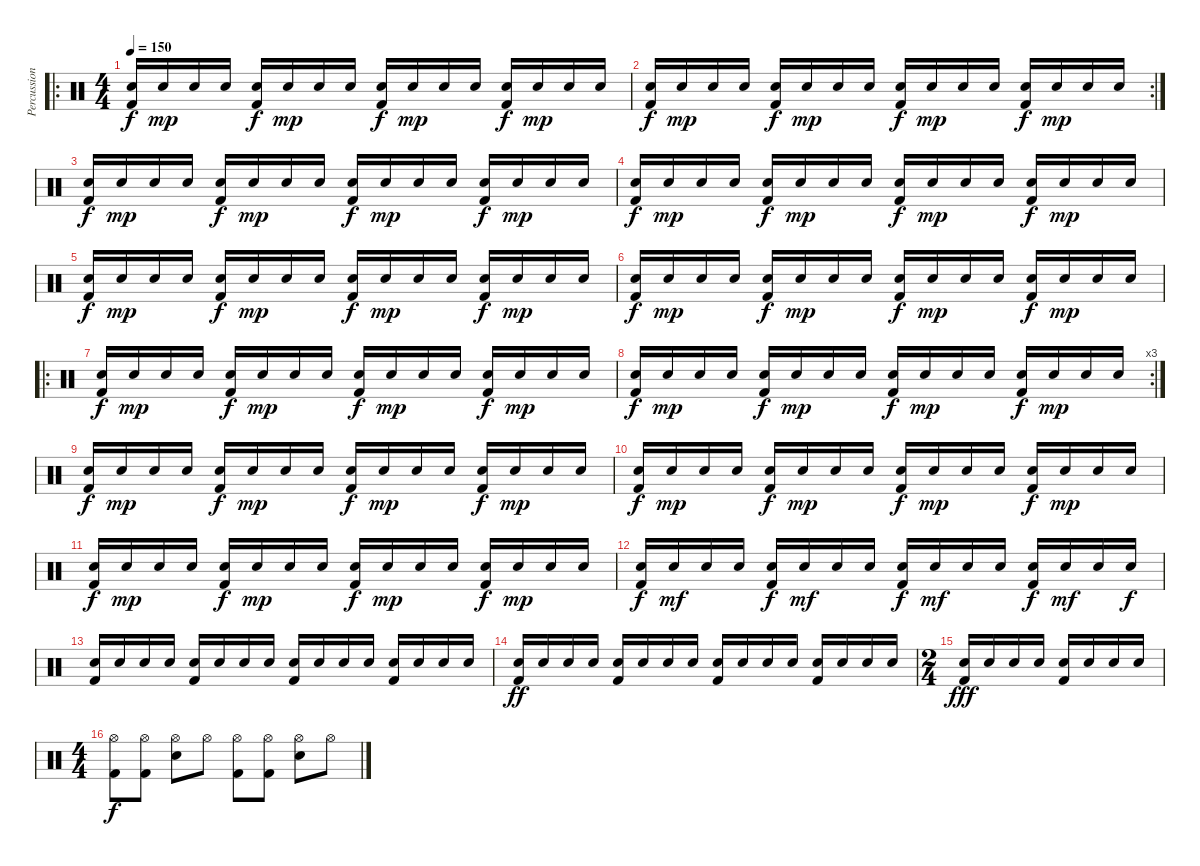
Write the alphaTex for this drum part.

\track ("Percussion" "Percussion") {instrument percussion}
\staff
\articulation defaults
\ro
\ts (4 4)
\tempo 150
\clef neutral
\ks c
("Snare (hit) 2" "Kick (hit) 2").16{dy f} "Snare (hit) 2".16{dy mp} "Snare (hit) 2".16 "Snare (hit) 2".16 ("Snare (hit) 2" "Kick (hit) 2").16{dy f} "Snare (hit) 2".16{dy mp} "Snare (hit) 2".16 "Snare (hit) 2".16 ("Snare (hit) 2" "Kick (hit) 2").16{dy f} "Snare (hit) 2".16{dy mp} "Snare (hit) 2".16 "Snare (hit) 2".16 ("Snare (hit) 2" "Kick (hit) 2").16{dy f} "Snare (hit) 2".16{dy mp} "Snare (hit) 2".16 "Snare (hit) 2".16 |
\rc 2
("Snare (hit) 2" "Kick (hit) 2").16{dy f} "Snare (hit) 2".16{dy mp} "Snare (hit) 2".16 "Snare (hit) 2".16 ("Snare (hit) 2" "Kick (hit) 2").16{dy f} "Snare (hit) 2".16{dy mp} "Snare (hit) 2".16 "Snare (hit) 2".16 ("Snare (hit) 2" "Kick (hit) 2").16{dy f} "Snare (hit) 2".16{dy mp} "Snare (hit) 2".16 "Snare (hit) 2".16 ("Snare (hit) 2" "Kick (hit) 2").16{dy f} "Snare (hit) 2".16{dy mp} "Snare (hit) 2".16 "Snare (hit) 2".16 |
("Snare (hit) 2" "Kick (hit) 2").16{dy f} "Snare (hit) 2".16{dy mp} "Snare (hit) 2".16 "Snare (hit) 2".16 ("Snare (hit) 2" "Kick (hit) 2").16{dy f} "Snare (hit) 2".16{dy mp} "Snare (hit) 2".16 "Snare (hit) 2".16 ("Snare (hit) 2" "Kick (hit) 2").16{dy f} "Snare (hit) 2".16{dy mp} "Snare (hit) 2".16 "Snare (hit) 2".16 ("Snare (hit) 2" "Kick (hit) 2").16{dy f} "Snare (hit) 2".16{dy mp} "Snare (hit) 2".16 "Snare (hit) 2".16 |
("Snare (hit) 2" "Kick (hit) 2").16{dy f} "Snare (hit) 2".16{dy mp} "Snare (hit) 2".16 "Snare (hit) 2".16 ("Snare (hit) 2" "Kick (hit) 2").16{dy f} "Snare (hit) 2".16{dy mp} "Snare (hit) 2".16 "Snare (hit) 2".16 ("Snare (hit) 2" "Kick (hit) 2").16{dy f} "Snare (hit) 2".16{dy mp} "Snare (hit) 2".16 "Snare (hit) 2".16 ("Snare (hit) 2" "Kick (hit) 2").16{dy f} "Snare (hit) 2".16{dy mp} "Snare (hit) 2".16 "Snare (hit) 2".16 |
("Snare (hit) 2" "Kick (hit) 2").16{dy f} "Snare (hit) 2".16{dy mp} "Snare (hit) 2".16 "Snare (hit) 2".16 ("Snare (hit) 2" "Kick (hit) 2").16{dy f} "Snare (hit) 2".16{dy mp} "Snare (hit) 2".16 "Snare (hit) 2".16 ("Snare (hit) 2" "Kick (hit) 2").16{dy f} "Snare (hit) 2".16{dy mp} "Snare (hit) 2".16 "Snare (hit) 2".16 ("Snare (hit) 2" "Kick (hit) 2").16{dy f} "Snare (hit) 2".16{dy mp} "Snare (hit) 2".16 "Snare (hit) 2".16 |
("Snare (hit) 2" "Kick (hit) 2").16{dy f} "Snare (hit) 2".16{dy mp} "Snare (hit) 2".16 "Snare (hit) 2".16 ("Snare (hit) 2" "Kick (hit) 2").16{dy f} "Snare (hit) 2".16{dy mp} "Snare (hit) 2".16 "Snare (hit) 2".16 ("Snare (hit) 2" "Kick (hit) 2").16{dy f} "Snare (hit) 2".16{dy mp} "Snare (hit) 2".16 "Snare (hit) 2".16 ("Snare (hit) 2" "Kick (hit) 2").16{dy f} "Snare (hit) 2".16{dy mp} "Snare (hit) 2".16 "Snare (hit) 2".16 |
\ro
("Snare (hit) 2" "Kick (hit) 2").16{dy f} "Snare (hit) 2".16{dy mp} "Snare (hit) 2".16 "Snare (hit) 2".16 ("Snare (hit) 2" "Kick (hit) 2").16{dy f} "Snare (hit) 2".16{dy mp} "Snare (hit) 2".16 "Snare (hit) 2".16 ("Snare (hit) 2" "Kick (hit) 2").16{dy f} "Snare (hit) 2".16{dy mp} "Snare (hit) 2".16 "Snare (hit) 2".16 ("Snare (hit) 2" "Kick (hit) 2").16{dy f} "Snare (hit) 2".16{dy mp} "Snare (hit) 2".16 "Snare (hit) 2".16 |
\rc 3
("Snare (hit) 2" "Kick (hit) 2").16{dy f} "Snare (hit) 2".16{dy mp} "Snare (hit) 2".16 "Snare (hit) 2".16 ("Snare (hit) 2" "Kick (hit) 2").16{dy f} "Snare (hit) 2".16{dy mp} "Snare (hit) 2".16 "Snare (hit) 2".16 ("Snare (hit) 2" "Kick (hit) 2").16{dy f} "Snare (hit) 2".16{dy mp} "Snare (hit) 2".16 "Snare (hit) 2".16 ("Snare (hit) 2" "Kick (hit) 2").16{dy f} "Snare (hit) 2".16{dy mp} "Snare (hit) 2".16 "Snare (hit) 2".16 |
("Snare (hit) 2" "Kick (hit) 2").16{dy f} "Snare (hit) 2".16{dy mp} "Snare (hit) 2".16 "Snare (hit) 2".16 ("Snare (hit) 2" "Kick (hit) 2").16{dy f} "Snare (hit) 2".16{dy mp} "Snare (hit) 2".16 "Snare (hit) 2".16 ("Snare (hit) 2" "Kick (hit) 2").16{dy f} "Snare (hit) 2".16{dy mp} "Snare (hit) 2".16 "Snare (hit) 2".16 ("Snare (hit) 2" "Kick (hit) 2").16{dy f} "Snare (hit) 2".16{dy mp} "Snare (hit) 2".16 "Snare (hit) 2".16 |
("Snare (hit) 2" "Kick (hit) 2").16{dy f} "Snare (hit) 2".16{dy mp} "Snare (hit) 2".16 "Snare (hit) 2".16 ("Snare (hit) 2" "Kick (hit) 2").16{dy f} "Snare (hit) 2".16{dy mp} "Snare (hit) 2".16 "Snare (hit) 2".16 ("Snare (hit) 2" "Kick (hit) 2").16{dy f} "Snare (hit) 2".16{dy mp} "Snare (hit) 2".16 "Snare (hit) 2".16 ("Snare (hit) 2" "Kick (hit) 2").16{dy f} "Snare (hit) 2".16{dy mp} "Snare (hit) 2".16 "Snare (hit) 2".16 |
("Snare (hit) 2" "Kick (hit) 2").16{dy f} "Snare (hit) 2".16{dy mp} "Snare (hit) 2".16 "Snare (hit) 2".16 ("Snare (hit) 2" "Kick (hit) 2").16{dy f} "Snare (hit) 2".16{dy mp} "Snare (hit) 2".16 "Snare (hit) 2".16 ("Snare (hit) 2" "Kick (hit) 2").16{dy f} "Snare (hit) 2".16{dy mp} "Snare (hit) 2".16 "Snare (hit) 2".16 ("Snare (hit) 2" "Kick (hit) 2").16{dy f} "Snare (hit) 2".16{dy mp} "Snare (hit) 2".16 "Snare (hit) 2".16 |
("Snare (hit) 2" "Kick (hit) 2").16{dy f} "Snare (hit) 2".16{dy mf} "Snare (hit) 2".16 "Snare (hit) 2".16 ("Snare (hit) 2" "Kick (hit) 2").16{dy f} "Snare (hit) 2".16{dy mf} "Snare (hit) 2".16 "Snare (hit) 2".16 ("Snare (hit) 2" "Kick (hit) 2").16{dy f} "Snare (hit) 2".16{dy mf} "Snare (hit) 2".16 "Snare (hit) 2".16 ("Snare (hit) 2" "Kick (hit) 2").16{dy f} "Snare (hit) 2".16{dy mf} "Snare (hit) 2".16 "Snare (hit) 2".16{dy f} |
("Snare (hit) 2" "Kick (hit) 2").16 "Snare (hit) 2".16 "Snare (hit) 2".16 "Snare (hit) 2".16 ("Snare (hit) 2" "Kick (hit) 2").16 "Snare (hit) 2".16 "Snare (hit) 2".16 "Snare (hit) 2".16 ("Snare (hit) 2" "Kick (hit) 2").16 "Snare (hit) 2".16 "Snare (hit) 2".16 "Snare (hit) 2".16 ("Snare (hit) 2" "Kick (hit) 2").16 "Snare (hit) 2".16 "Snare (hit) 2".16 "Snare (hit) 2".16 |
("Snare (hit) 2" "Kick (hit) 2").16{dy ff} "Snare (hit) 2".16 "Snare (hit) 2".16 "Snare (hit) 2".16 ("Snare (hit) 2" "Kick (hit) 2").16 "Snare (hit) 2".16 "Snare (hit) 2".16 "Snare (hit) 2".16 ("Snare (hit) 2" "Kick (hit) 2").16 "Snare (hit) 2".16 "Snare (hit) 2".16 "Snare (hit) 2".16 ("Snare (hit) 2" "Kick (hit) 2").16 "Snare (hit) 2".16 "Snare (hit) 2".16 "Snare (hit) 2".16 |
\ts (2 4)
("Snare (hit) 2" "Kick (hit) 2").16{dy fff} "Snare (hit) 2".16 "Snare (hit) 2".16 "Snare (hit) 2".16 ("Snare (hit) 2" "Kick (hit) 2").16 "Snare (hit) 2".16 "Snare (hit) 2".16 "Snare (hit) 2".16 |
\ts (4 4)
("Hi-Hat (open)" "Kick (hit) 2").8{dy f} ("Hi-Hat (open)" "Kick (hit) 2").8 ("Hi-Hat (open)" "Snare (hit) 2").8 "Hi-Hat (open)".8 ("Hi-Hat (open)" "Kick (hit) 2").8 ("Hi-Hat (open)" "Kick (hit) 2").8 ("Hi-Hat (open)" "Snare (hit) 2").8 "Hi-Hat (open)".8
